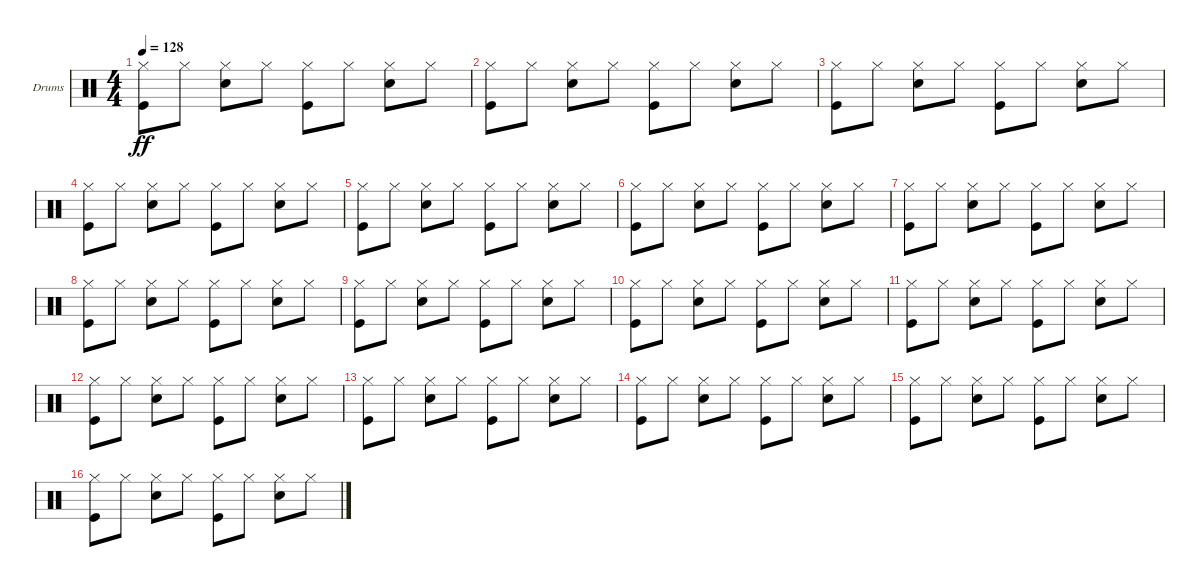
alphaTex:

\defaultSystemsLayout 4
\bracketExtendMode groupsimilarinstruments
\firstSystemTrackNameOrientation horizontal
\otherSystemsTrackNameOrientation horizontal
\track ("Drums" "Drums") {instrument percussion}
\staff {score}
\articulation defaults
\ts (4 4)
\tempo 128
\clef neutral
\ks c
("Kick (hit)" "Hi-Hat (closed)").8{dy ff} "Hi-Hat (closed)".8 ("Snare (hit) 2" "Hi-Hat (closed)").8 "Hi-Hat (closed)".8 ("Kick (hit)" "Hi-Hat (closed)").8 "Hi-Hat (closed)".8 ("Snare (hit) 2" "Hi-Hat (closed)").8 "Hi-Hat (closed)".8 |
("Kick (hit)" "Hi-Hat (closed)").8 "Hi-Hat (closed)".8 ("Snare (hit) 2" "Hi-Hat (closed)").8 "Hi-Hat (closed)".8 ("Kick (hit)" "Hi-Hat (closed)").8 "Hi-Hat (closed)".8 ("Snare (hit) 2" "Hi-Hat (closed)").8 "Hi-Hat (closed)".8 |
("Kick (hit)" "Hi-Hat (closed)").8 "Hi-Hat (closed)".8 ("Snare (hit) 2" "Hi-Hat (closed)").8 "Hi-Hat (closed)".8 ("Kick (hit)" "Hi-Hat (closed)").8 "Hi-Hat (closed)".8 ("Snare (hit) 2" "Hi-Hat (closed)").8 "Hi-Hat (closed)".8 |
("Kick (hit)" "Hi-Hat (closed)").8 "Hi-Hat (closed)".8 ("Snare (hit) 2" "Hi-Hat (closed)").8 "Hi-Hat (closed)".8 ("Hi-Hat (closed)" "Kick (hit)").8 "Hi-Hat (closed)".8 ("Snare (hit) 2" "Hi-Hat (closed)").8 "Hi-Hat (closed)".8 |
("Kick (hit)" "Hi-Hat (closed)").8 "Hi-Hat (closed)".8 ("Snare (hit) 2" "Hi-Hat (closed)").8 "Hi-Hat (closed)".8 ("Kick (hit)" "Hi-Hat (closed)").8 "Hi-Hat (closed)".8 ("Snare (hit) 2" "Hi-Hat (closed)").8 "Hi-Hat (closed)".8 |
("Kick (hit)" "Hi-Hat (closed)").8 "Hi-Hat (closed)".8 ("Snare (hit) 2" "Hi-Hat (closed)").8 "Hi-Hat (closed)".8 ("Hi-Hat (closed)" "Kick (hit)").8 "Hi-Hat (closed)".8 ("Snare (hit) 2" "Hi-Hat (closed)").8 "Hi-Hat (closed)".8 |
("Kick (hit)" "Hi-Hat (closed)").8 "Hi-Hat (closed)".8 ("Snare (hit) 2" "Hi-Hat (closed)").8 "Hi-Hat (closed)".8 ("Kick (hit)" "Hi-Hat (closed)").8 "Hi-Hat (closed)".8 ("Snare (hit) 2" "Hi-Hat (closed)").8 "Hi-Hat (closed)".8 |
("Kick (hit)" "Hi-Hat (closed)").8 "Hi-Hat (closed)".8 ("Snare (hit) 2" "Hi-Hat (closed)").8 "Hi-Hat (closed)".8 ("Hi-Hat (closed)" "Kick (hit)").8 "Hi-Hat (closed)".8 ("Snare (hit) 2" "Hi-Hat (closed)").8 "Hi-Hat (closed)".8 |
("Kick (hit)" "Hi-Hat (closed)").8 "Hi-Hat (closed)".8 ("Snare (hit) 2" "Hi-Hat (closed)").8 "Hi-Hat (closed)".8 ("Kick (hit)" "Hi-Hat (closed)").8 "Hi-Hat (closed)".8 ("Snare (hit) 2" "Hi-Hat (closed)").8 "Hi-Hat (closed)".8 |
("Kick (hit)" "Hi-Hat (closed)").8 "Hi-Hat (closed)".8 ("Snare (hit) 2" "Hi-Hat (closed)").8 "Hi-Hat (closed)".8 ("Hi-Hat (closed)" "Kick (hit)").8 "Hi-Hat (closed)".8 ("Snare (hit) 2" "Hi-Hat (closed)").8 "Hi-Hat (closed)".8 |
("Kick (hit)" "Hi-Hat (closed)").8 "Hi-Hat (closed)".8 ("Snare (hit) 2" "Hi-Hat (closed)").8 "Hi-Hat (closed)".8 ("Kick (hit)" "Hi-Hat (closed)").8 "Hi-Hat (closed)".8 ("Snare (hit) 2" "Hi-Hat (closed)").8 "Hi-Hat (closed)".8 |
("Kick (hit)" "Hi-Hat (closed)").8 "Hi-Hat (closed)".8 ("Snare (hit) 2" "Hi-Hat (closed)").8 "Hi-Hat (closed)".8 ("Hi-Hat (closed)" "Kick (hit)").8 "Hi-Hat (closed)".8 ("Snare (hit) 2" "Hi-Hat (closed)").8 "Hi-Hat (closed)".8 |
("Kick (hit)" "Hi-Hat (closed)").8 "Hi-Hat (closed)".8 ("Snare (hit) 2" "Hi-Hat (closed)").8 "Hi-Hat (closed)".8 ("Kick (hit)" "Hi-Hat (closed)").8 "Hi-Hat (closed)".8 ("Snare (hit) 2" "Hi-Hat (closed)").8 "Hi-Hat (closed)".8 |
("Kick (hit)" "Hi-Hat (closed)").8 "Hi-Hat (closed)".8 ("Snare (hit) 2" "Hi-Hat (closed)").8 "Hi-Hat (closed)".8 ("Hi-Hat (closed)" "Kick (hit)").8 "Hi-Hat (closed)".8 ("Snare (hit) 2" "Hi-Hat (closed)").8 "Hi-Hat (closed)".8 |
("Kick (hit)" "Hi-Hat (closed)").8 "Hi-Hat (closed)".8 ("Snare (hit) 2" "Hi-Hat (closed)").8 "Hi-Hat (closed)".8 ("Kick (hit)" "Hi-Hat (closed)").8 "Hi-Hat (closed)".8 ("Snare (hit) 2" "Hi-Hat (closed)").8 "Hi-Hat (closed)".8 |
("Kick (hit)" "Hi-Hat (closed)").8 "Hi-Hat (closed)".8 ("Snare (hit) 2" "Hi-Hat (closed)").8 "Hi-Hat (closed)".8 ("Hi-Hat (closed)" "Kick (hit)").8 "Hi-Hat (closed)".8 ("Snare (hit) 2" "Hi-Hat (closed)").8 "Hi-Hat (closed)".8
